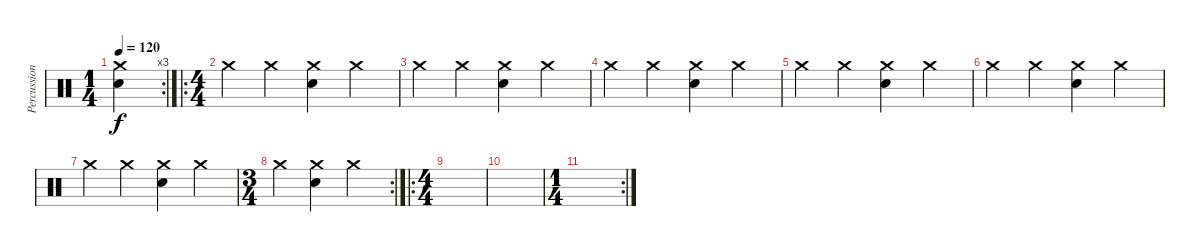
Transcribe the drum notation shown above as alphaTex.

\track ("Percussion" "Percussion") {instrument percussion}
\staff {score}
\articulation defaults
\rc 3
\ts (1 4)
\tempo 120
\clef neutral
\ks c
("Crash medium (hit)" "Electric Snare (hit)").4{dy f} |
\ro
\ts (4 4)
"Crash medium (hit)".4 "Crash medium (hit)".4 ("Crash medium (hit)" "Electric Snare (hit)").4 "Crash medium (hit)".4 |
"Crash medium (hit)".4 "Crash medium (hit)".4 ("Crash medium (hit)" "Electric Snare (hit)").4 "Crash medium (hit)".4 |
"Crash medium (hit)".4 "Crash medium (hit)".4 ("Crash medium (hit)" "Electric Snare (hit)").4 "Crash medium (hit)".4 |
"Crash medium (hit)".4 "Crash medium (hit)".4 ("Crash medium (hit)" "Electric Snare (hit)").4 "Crash medium (hit)".4 |
"Crash medium (hit)".4 "Crash medium (hit)".4 ("Crash medium (hit)" "Electric Snare (hit)").4 "Crash medium (hit)".4 |
"Crash medium (hit)".4 "Crash medium (hit)".4 ("Crash medium (hit)" "Electric Snare (hit)").4 "Crash medium (hit)".4 |
\rc 2
\ts (3 4)
"Crash medium (hit)".4 ("Crash medium (hit)" "Electric Snare (hit)").4 "Crash medium (hit)".4 |
\ro
\ts (4 4)
|
|
\rc 2
\ts (1 4)
